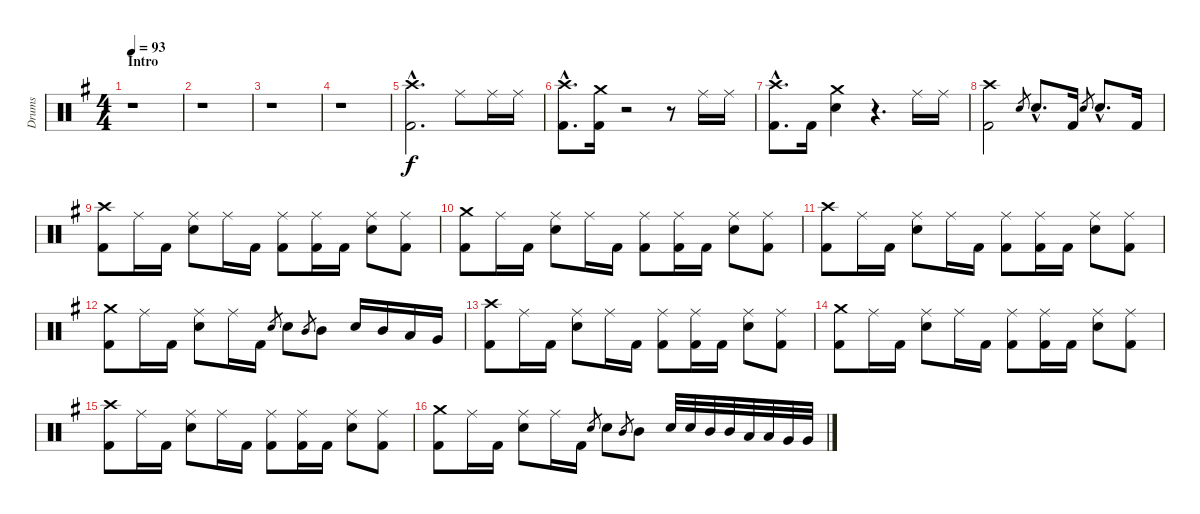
\track ("Drums" "Drums") {instrument percussion}
\staff {score}
\articulation defaults
\ts (4 4)
\section ("" "Intro")
\tempo 93
\clef neutral
\ks eminor
r.1{dy f} |
r.1 |
r.1 |
r.1 |
("Crash high (hit)"{hac} "Kick (hit) 2"{hac}).2{d} "Ride (middle)".8 "Ride (middle)".16 "Ride (middle)".16 |
("Crash high (hit)"{hac} "Kick (hit) 2"{hac}).8{d} ("Crash medium (hit)" "Kick (hit) 2").16 r.2 r.8 "Ride (middle)".16 "Ride (middle)".16 |
("Crash high (hit)"{hac} "Kick (hit) 2"{hac}).8{d} "Kick (hit) 2".16 ("Crash medium (hit)" "Snare (hit) 2").4 r.4{d} "Ride (middle)".16 "Ride (middle)".16 |
("Crash high (hit)" "Kick (hit) 2").2 "Snare (hit) 2".8{gr} "Snare (hit) 2"{hac}.8{d} "Kick (hit) 2".16 "Snare (hit) 2".8{gr} "Snare (hit) 2"{hac}.8{d} "Kick (hit) 2".16 |
("Crash high (hit)" "Kick (hit) 2").8 "Ride (middle)".16 "Kick (hit) 2".16 ("Ride (middle)" "Snare (hit) 2").8 "Ride (middle)".16 "Kick (hit) 2".16 ("Ride (middle)" "Kick (hit) 2").8 ("Ride (middle)" "Kick (hit) 2").16 "Kick (hit) 2".16 ("Ride (middle)" "Snare (hit) 2").8 ("Ride (middle)" "Kick (hit) 2").8 |
("Crash medium (hit)" "Kick (hit) 2").8 "Ride (middle)".16 "Kick (hit) 2".16 ("Ride (middle)" "Snare (hit) 2").8 "Ride (middle)".16 "Kick (hit) 2".16 ("Ride (middle)" "Kick (hit) 2").8 ("Ride (middle)" "Kick (hit) 2").16 "Kick (hit) 2".16 ("Ride (middle)" "Snare (hit) 2").8 ("Ride (middle)" "Kick (hit) 2").8 |
("Crash high (hit)" "Kick (hit) 2").8 "Ride (middle)".16 "Kick (hit) 2".16 ("Ride (middle)" "Snare (hit) 2").8 "Ride (middle)".16 "Kick (hit) 2".16 ("Ride (middle)" "Kick (hit) 2").8 ("Ride (middle)" "Kick (hit) 2").16 "Kick (hit) 2".16 ("Ride (middle)" "Snare (hit) 2").8 ("Ride (middle)" "Kick (hit) 2").8 |
("Crash medium (hit)" "Kick (hit) 2").8 "Ride (middle)".16 "Kick (hit) 2".16 ("Ride (middle)" "Snare (hit) 2").8 "Ride (middle)".16 "Kick (hit) 2".16 "Snare (hit) 2".8{gr} "Snare (hit) 2".8 "Mid Tom (hit)".8{gr} "Mid Tom (hit)".8 "Snare (hit) 2".16 "Mid Tom (hit)".16 "Low Tom (hit)".16 "Very Low Tom (hit)".16 |
("Crash high (hit)" "Kick (hit) 2").8 "Ride (middle)".16 "Kick (hit) 2".16 ("Ride (middle)" "Snare (hit) 2").8 "Ride (middle)".16 "Kick (hit) 2".16 ("Ride (middle)" "Kick (hit) 2").8 ("Ride (middle)" "Kick (hit) 2").16 "Kick (hit) 2".16 ("Ride (middle)" "Snare (hit) 2").8 ("Ride (middle)" "Kick (hit) 2").8 |
("Crash medium (hit)" "Kick (hit) 2").8 "Ride (middle)".16 "Kick (hit) 2".16 ("Ride (middle)" "Snare (hit) 2").8 "Ride (middle)".16 "Kick (hit) 2".16 ("Ride (middle)" "Kick (hit) 2").8 ("Ride (middle)" "Kick (hit) 2").16 "Kick (hit) 2".16 ("Ride (middle)" "Snare (hit) 2").8 ("Ride (middle)" "Kick (hit) 2").8 |
("Crash high (hit)" "Kick (hit) 2").8 "Ride (middle)".16 "Kick (hit) 2".16 ("Ride (middle)" "Snare (hit) 2").8 "Ride (middle)".16 "Kick (hit) 2".16 ("Ride (middle)" "Kick (hit) 2").8 ("Ride (middle)" "Kick (hit) 2").16 "Kick (hit) 2".16 ("Ride (middle)" "Snare (hit) 2").8 ("Ride (middle)" "Kick (hit) 2").8 |
("Crash medium (hit)" "Kick (hit) 2").8 "Ride (middle)".16 "Kick (hit) 2".16 ("Ride (middle)" "Snare (hit) 2").8 "Ride (middle)".16 "Kick (hit) 2".16 "Snare (hit) 2".8{gr} "Snare (hit) 2".8 "Mid Tom (hit)".8{gr} "Mid Tom (hit)".8 "Snare (hit) 2".32 "Snare (hit) 2".32 "Mid Tom (hit)".32 "Mid Tom (hit)".32 "Low Tom (hit)".32 "Low Tom (hit)".32 "Very Low Tom (hit)".32 "Very Low Tom (hit)".32
